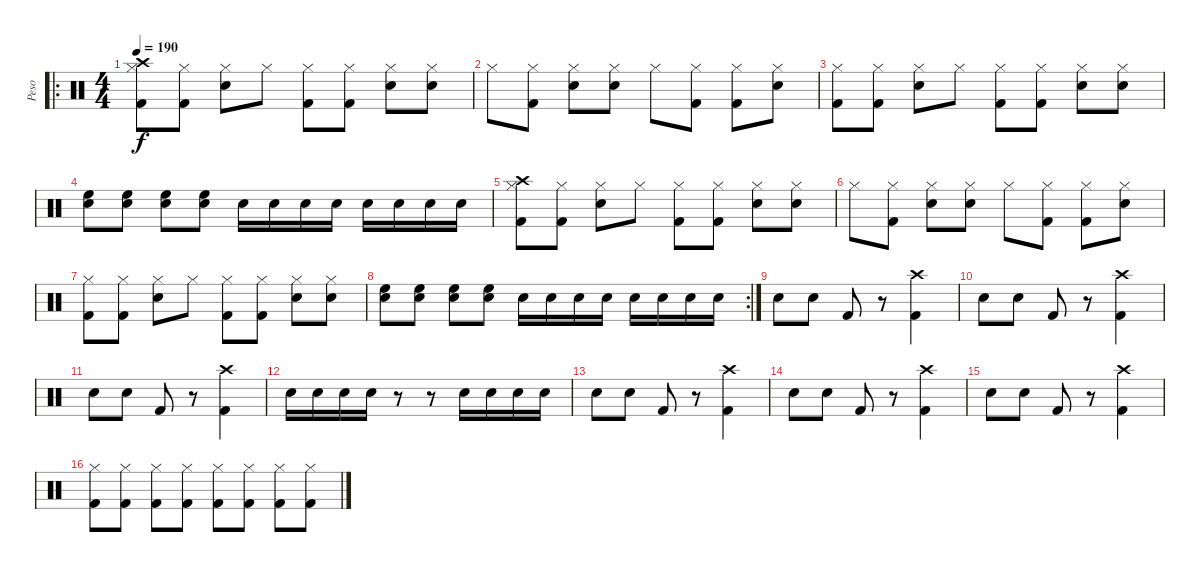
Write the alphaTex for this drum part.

\track ("Peso" "Peso") {instrument percussion}
\staff {score}
\articulation defaults
\ro
\ts (4 4)
\tempo 190
\clef neutral
\ks c
("Crash high (hit)" "Hi-Hat (closed)" "Kick (hit) 2").8{dy f} ("Hi-Hat (closed)" "Kick (hit) 2").8 ("Hi-Hat (closed)" "Snare (hit) 2").8 "Hi-Hat (closed)".8 ("Hi-Hat (closed)" "Kick (hit) 2").8 ("Hi-Hat (closed)" "Kick (hit) 2").8 ("Hi-Hat (closed)" "Snare (hit) 2").8 ("Hi-Hat (closed)" "Snare (hit) 2").8 |
"Hi-Hat (closed)".8 ("Hi-Hat (closed)" "Kick (hit) 2").8 ("Hi-Hat (closed)" "Snare (hit) 2").8 ("Hi-Hat (closed)" "Snare (hit) 2").8 "Hi-Hat (closed)".8 ("Hi-Hat (closed)" "Kick (hit) 2").8 ("Hi-Hat (closed)" "Kick (hit) 2").8 ("Hi-Hat (closed)" "Snare (hit) 2").8 |
("Hi-Hat (closed)" "Kick (hit) 2").8 ("Hi-Hat (closed)" "Kick (hit) 2").8 ("Hi-Hat (closed)" "Snare (hit) 2").8 "Hi-Hat (closed)".8 ("Hi-Hat (closed)" "Kick (hit) 2").8 ("Hi-Hat (closed)" "Kick (hit) 2").8 ("Hi-Hat (closed)" "Snare (hit) 2").8 ("Hi-Hat (closed)" "Snare (hit) 2").8 |
("High Floor Tom (hit)" "Snare (hit) 2").8 ("High Floor Tom (hit)" "Snare (hit) 2").8 ("High Floor Tom (hit)" "Snare (hit) 2").8 ("High Floor Tom (hit)" "Snare (hit) 2").8 "Snare (hit) 2".16 "Snare (hit) 2".16 "Snare (hit) 2".16 "Snare (hit) 2".16 "Snare (hit) 2".16 "Snare (hit) 2".16 "Snare (hit) 2".16 "Snare (hit) 2".16 |
("Crash high (hit)" "Hi-Hat (closed)" "Kick (hit) 2").8 ("Hi-Hat (closed)" "Kick (hit) 2").8 ("Hi-Hat (closed)" "Snare (hit) 2").8 "Hi-Hat (closed)".8 ("Hi-Hat (closed)" "Kick (hit) 2").8 ("Hi-Hat (closed)" "Kick (hit) 2").8 ("Hi-Hat (closed)" "Snare (hit) 2").8 ("Hi-Hat (closed)" "Snare (hit) 2").8 |
"Hi-Hat (closed)".8 ("Hi-Hat (closed)" "Kick (hit) 2").8 ("Hi-Hat (closed)" "Snare (hit) 2").8 ("Hi-Hat (closed)" "Snare (hit) 2").8 "Hi-Hat (closed)".8 ("Hi-Hat (closed)" "Kick (hit) 2").8 ("Hi-Hat (closed)" "Kick (hit) 2").8 ("Hi-Hat (closed)" "Snare (hit) 2").8 |
("Hi-Hat (closed)" "Kick (hit) 2").8 ("Hi-Hat (closed)" "Kick (hit) 2").8 ("Hi-Hat (closed)" "Snare (hit) 2").8 "Hi-Hat (closed)".8 ("Hi-Hat (closed)" "Kick (hit) 2").8 ("Hi-Hat (closed)" "Kick (hit) 2").8 ("Hi-Hat (closed)" "Snare (hit) 2").8 ("Hi-Hat (closed)" "Snare (hit) 2").8 |
\rc 2
("High Floor Tom (hit)" "Snare (hit) 2").8 ("High Floor Tom (hit)" "Snare (hit) 2").8 ("High Floor Tom (hit)" "Snare (hit) 2").8 ("High Floor Tom (hit)" "Snare (hit) 2").8 "Snare (hit) 2".16 "Snare (hit) 2".16 "Snare (hit) 2".16 "Snare (hit) 2".16 "Snare (hit) 2".16 "Snare (hit) 2".16 "Snare (hit) 2".16 "Snare (hit) 2".16 |
"Snare (hit) 2".8 "Snare (hit) 2".8 "Kick (hit) 2".8 r.8 ("Crash high (hit)" "Kick (hit) 2").4 |
"Snare (hit) 2".8 "Snare (hit) 2".8 "Kick (hit) 2".8 r.8 ("Crash high (hit)" "Kick (hit) 2").4 |
"Snare (hit) 2".8 "Snare (hit) 2".8 "Kick (hit) 2".8 r.8 ("Crash high (hit)" "Kick (hit) 2").4 |
"Snare (hit) 2".16 "Snare (hit) 2".16 "Snare (hit) 2".16 "Snare (hit) 2".16 r.8 r.8 "Snare (hit) 2".16 "Snare (hit) 2".16 "Snare (hit) 2".16 "Snare (hit) 2".16 |
"Snare (hit) 2".8 "Snare (hit) 2".8 "Kick (hit) 2".8 r.8 ("Crash high (hit)" "Kick (hit) 2").4 |
"Snare (hit) 2".8 "Snare (hit) 2".8 "Kick (hit) 2".8 r.8 ("Crash high (hit)" "Kick (hit) 2").4 |
"Snare (hit) 2".8 "Snare (hit) 2".8 "Kick (hit) 2".8 r.8 ("Crash high (hit)" "Kick (hit) 2").4 |
("Hi-Hat (closed)" "Kick (hit) 2").8 ("Hi-Hat (closed)"{x} "Kick (hit) 2"{x}).8 ("Hi-Hat (closed)" "Kick (hit) 2").8 ("Hi-Hat (closed)"{x} "Kick (hit) 2"{x}).8 ("Hi-Hat (closed)" "Kick (hit) 2").8 ("Hi-Hat (closed)"{x} "Kick (hit) 2"{x}).8 ("Hi-Hat (closed)" "Kick (hit) 2").8 ("Hi-Hat (closed)"{x} "Kick (hit) 2"{x}).8
